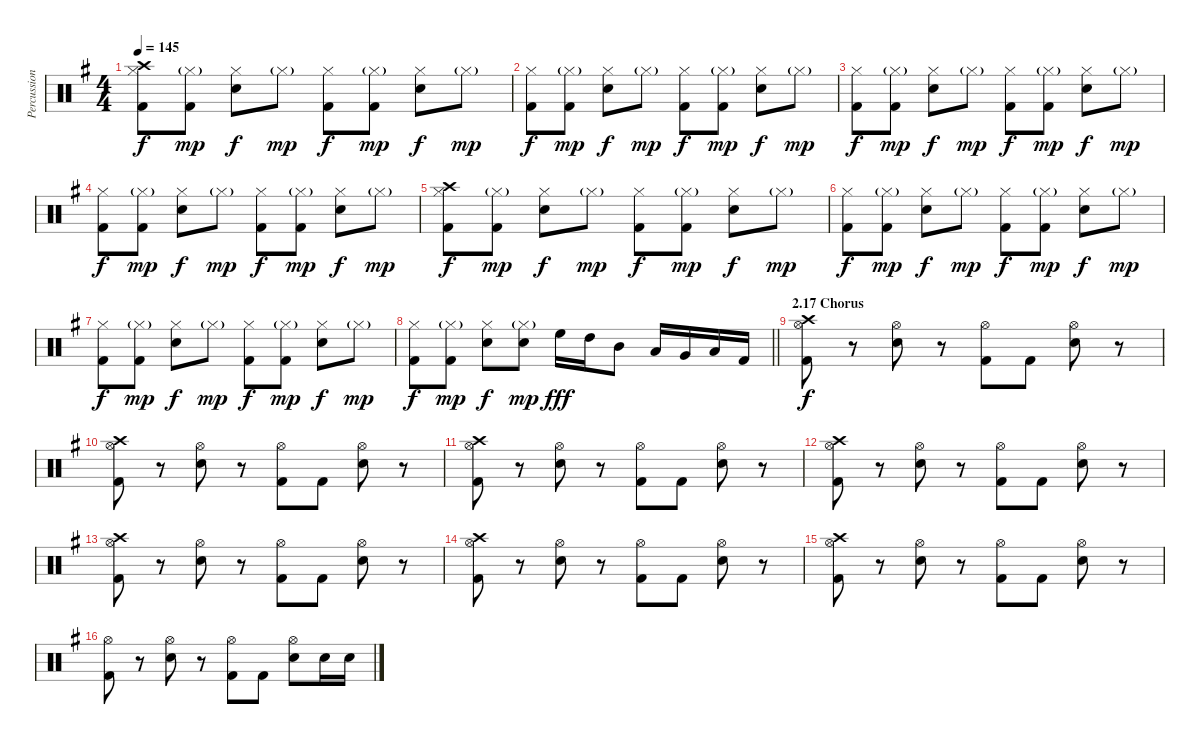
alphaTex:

\track ("Percussion" "Percussion") {instrument percussion}
\staff {score}
\articulation defaults
\ts (4 4)
\tempo 145
\clef neutral
\ks eminor
("Crash high (hit)" "Hi-Hat (closed)" "Kick (hit) 2").8{dy f} ("Hi-Hat (closed)"{g} "Kick (hit) 2").8{dy mp} ("Hi-Hat (closed)" "Electric Snare (hit)").8{dy f} "Hi-Hat (closed)"{g}.8{dy mp} ("Hi-Hat (closed)" "Kick (hit) 2").8{dy f} ("Hi-Hat (closed)"{g} "Kick (hit) 2").8{dy mp} ("Hi-Hat (closed)" "Electric Snare (hit)").8{dy f} "Hi-Hat (closed)"{g}.8{dy mp} |
("Hi-Hat (closed)" "Kick (hit) 2").8{dy f} ("Hi-Hat (closed)"{g} "Kick (hit) 2").8{dy mp} ("Hi-Hat (closed)" "Electric Snare (hit)").8{dy f} "Hi-Hat (closed)"{g}.8{dy mp} ("Hi-Hat (closed)" "Kick (hit) 2").8{dy f} ("Hi-Hat (closed)"{g} "Kick (hit) 2").8{dy mp} ("Hi-Hat (closed)" "Electric Snare (hit)").8{dy f} "Hi-Hat (closed)"{g}.8{dy mp} |
("Hi-Hat (closed)" "Kick (hit) 2").8{dy f} ("Hi-Hat (closed)"{g} "Kick (hit) 2").8{dy mp} ("Hi-Hat (closed)" "Electric Snare (hit)").8{dy f} "Hi-Hat (closed)"{g}.8{dy mp} ("Hi-Hat (closed)" "Kick (hit) 2").8{dy f} ("Hi-Hat (closed)"{g} "Kick (hit) 2").8{dy mp} ("Hi-Hat (closed)" "Electric Snare (hit)").8{dy f} "Hi-Hat (closed)"{g}.8{dy mp} |
("Hi-Hat (closed)" "Kick (hit) 2").8{dy f} ("Hi-Hat (closed)"{g} "Kick (hit) 2").8{dy mp} ("Hi-Hat (closed)" "Electric Snare (hit)").8{dy f} "Hi-Hat (closed)"{g}.8{dy mp} ("Hi-Hat (closed)" "Kick (hit) 2").8{dy f} ("Hi-Hat (closed)"{g} "Kick (hit) 2").8{dy mp} ("Hi-Hat (closed)" "Electric Snare (hit)").8{dy f} "Hi-Hat (closed)"{g}.8{dy mp} |
("Crash high (hit)" "Hi-Hat (closed)" "Kick (hit) 2").8{dy f} ("Hi-Hat (closed)"{g} "Kick (hit) 2").8{dy mp} ("Hi-Hat (closed)" "Electric Snare (hit)").8{dy f} "Hi-Hat (closed)"{g}.8{dy mp} ("Hi-Hat (closed)" "Kick (hit) 2").8{dy f} ("Hi-Hat (closed)"{g} "Kick (hit) 2").8{dy mp} ("Hi-Hat (closed)" "Electric Snare (hit)").8{dy f} "Hi-Hat (closed)"{g}.8{dy mp} |
("Hi-Hat (closed)" "Kick (hit) 2").8{dy f} ("Hi-Hat (closed)"{g} "Kick (hit) 2").8{dy mp} ("Hi-Hat (closed)" "Electric Snare (hit)").8{dy f} "Hi-Hat (closed)"{g}.8{dy mp} ("Hi-Hat (closed)" "Kick (hit) 2").8{dy f} ("Hi-Hat (closed)"{g} "Kick (hit) 2").8{dy mp} ("Hi-Hat (closed)" "Electric Snare (hit)").8{dy f} "Hi-Hat (closed)"{g}.8{dy mp} |
("Hi-Hat (closed)" "Kick (hit) 2").8{dy f} ("Hi-Hat (closed)"{g} "Kick (hit) 2").8{dy mp} ("Hi-Hat (closed)" "Electric Snare (hit)").8{dy f} "Hi-Hat (closed)"{g}.8{dy mp} ("Hi-Hat (closed)" "Kick (hit) 2").8{dy f} ("Hi-Hat (closed)"{g} "Kick (hit) 2").8{dy mp} ("Hi-Hat (closed)" "Electric Snare (hit)").8{dy f} "Hi-Hat (closed)"{g}.8{dy mp} |
\barLineRight lightlight
("Hi-Hat (closed)" "Kick (hit) 2").8{dy f} ("Hi-Hat (closed)"{g} "Kick (hit) 2").8{dy mp} ("Hi-Hat (closed)" "Electric Snare (hit)").8{dy f} ("Hi-Hat (closed)"{g} "Electric Snare (hit)").8{dy mp} "High Floor Tom (hit)".16{dy fff} "High Tom (hit)".16 "Mid Tom (hit)".8 "Low Tom (hit)".16 "Very Low Tom (hit)".16 "Low Floor Tom (hit)".16 "Kick (hit) 2".16 |
\section ("" "2.17 Chorus")
("Crash high (hit)" "Hi-Hat (open)" "Kick (hit) 2").8{dy f} r.8 ("Hi-Hat (open)" "Electric Snare (hit)").8 r.8 ("Hi-Hat (open)" "Kick (hit) 2").8 "Kick (hit) 2".8 ("Hi-Hat (open)" "Electric Snare (hit)").8 r.8 |
("Crash high (hit)" "Hi-Hat (open)" "Kick (hit) 2").8 r.8 ("Hi-Hat (open)" "Electric Snare (hit)").8 r.8 ("Hi-Hat (open)" "Kick (hit) 2").8 "Kick (hit) 2".8 ("Hi-Hat (open)" "Electric Snare (hit)").8 r.8 |
("Crash high (hit)" "Hi-Hat (open)" "Kick (hit) 2").8 r.8 ("Hi-Hat (open)" "Electric Snare (hit)").8 r.8 ("Hi-Hat (open)" "Kick (hit) 2").8 "Kick (hit) 2".8 ("Hi-Hat (open)" "Electric Snare (hit)").8 r.8 |
("Crash high (hit)" "Hi-Hat (open)" "Kick (hit) 2").8 r.8 ("Hi-Hat (open)" "Electric Snare (hit)").8 r.8 ("Hi-Hat (open)" "Kick (hit) 2").8 "Kick (hit) 2".8 ("Hi-Hat (open)" "Electric Snare (hit)").8 r.8 |
("Crash high (hit)" "Hi-Hat (open)" "Kick (hit) 2").8 r.8 ("Hi-Hat (open)" "Electric Snare (hit)").8 r.8 ("Hi-Hat (open)" "Kick (hit) 2").8 "Kick (hit) 2".8 ("Hi-Hat (open)" "Electric Snare (hit)").8 r.8 |
("Crash high (hit)" "Hi-Hat (open)" "Kick (hit) 2").8 r.8 ("Hi-Hat (open)" "Electric Snare (hit)").8 r.8 ("Hi-Hat (open)" "Kick (hit) 2").8 "Kick (hit) 2".8 ("Hi-Hat (open)" "Electric Snare (hit)").8 r.8 |
("Crash high (hit)" "Hi-Hat (open)" "Kick (hit) 2").8 r.8 ("Hi-Hat (open)" "Electric Snare (hit)").8 r.8 ("Hi-Hat (open)" "Kick (hit) 2").8 "Kick (hit) 2".8 ("Hi-Hat (open)" "Electric Snare (hit)").8 r.8 |
("Hi-Hat (open)" "Kick (hit) 2").8 r.8 ("Hi-Hat (open)" "Electric Snare (hit)").8 r.8 ("Hi-Hat (open)" "Kick (hit) 2").8 "Kick (hit) 2".8 ("Hi-Hat (open)" "Electric Snare (hit)").8 "Electric Snare (hit)".16 "Electric Snare (hit)".16
